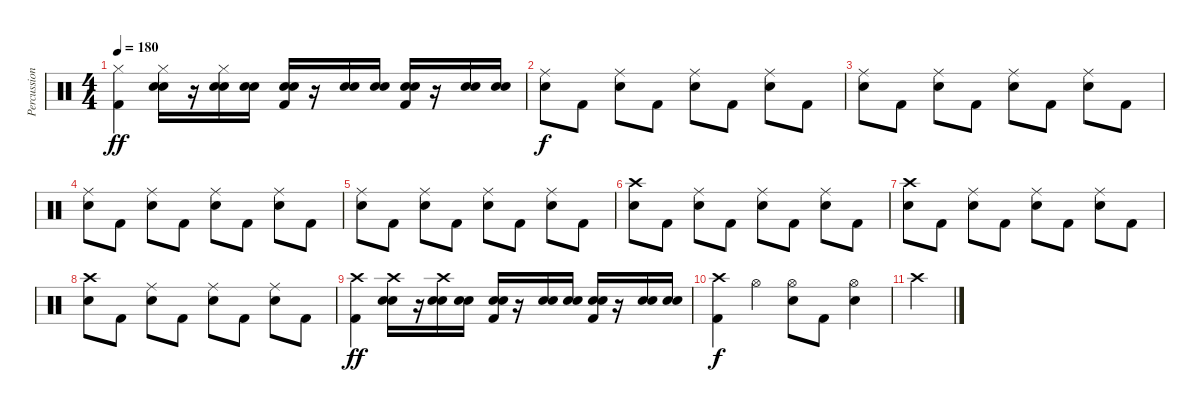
\track ("Percussion" "Percussion") {instrument percussion}
\staff {score}
\articulation defaults
\ts (4 4)
\tempo 180
\clef neutral
\ks c
("Hi-Hat (closed)" "Kick (hit) 2").4{dy ff} ("Hi-Hat (closed)" "Electric Snare (hit)" "Snare (hit) 2").16 r.16 ("Hi-Hat (closed)" "Electric Snare (hit)" "Snare (hit) 2").16 ("Electric Snare (hit)" "Snare (hit) 2").16 ("Electric Snare (hit)" "Snare (hit) 2" "Kick (hit) 2").16 r.16 ("Electric Snare (hit)" "Snare (hit) 2").16 ("Electric Snare (hit)" "Snare (hit) 2").16 ("Electric Snare (hit)" "Snare (hit) 2" "Kick (hit) 2").16 r.16 ("Electric Snare (hit)" "Snare (hit) 2").16 ("Electric Snare (hit)" "Snare (hit) 2").16 |
("Ride (middle)" "Electric Snare (hit)").8{dy f} "Kick (hit) 2".8 ("Ride (middle)" "Electric Snare (hit)").8 "Kick (hit) 2".8 ("Ride (middle)" "Electric Snare (hit)").8 "Kick (hit) 2".8 ("Ride (middle)" "Electric Snare (hit)").8 "Kick (hit) 2".8 |
("Ride (middle)" "Electric Snare (hit)").8 "Kick (hit) 2".8 ("Ride (middle)" "Electric Snare (hit)").8 "Kick (hit) 2".8 ("Ride (middle)" "Electric Snare (hit)").8 "Kick (hit) 2".8 ("Ride (middle)" "Electric Snare (hit)").8 "Kick (hit) 2".8 |
("Ride (middle)" "Electric Snare (hit)").8 "Kick (hit) 2".8 ("Ride (middle)" "Electric Snare (hit)").8 "Kick (hit) 2".8 ("Ride (middle)" "Electric Snare (hit)").8 "Kick (hit) 2".8 ("Ride (middle)" "Electric Snare (hit)").8 "Kick (hit) 2".8 |
("Ride (middle)" "Electric Snare (hit)").8 "Kick (hit) 2".8 ("Ride (middle)" "Electric Snare (hit)").8 "Kick (hit) 2".8 ("Ride (middle)" "Electric Snare (hit)").8 "Kick (hit) 2".8 ("Ride (middle)" "Electric Snare (hit)").8 "Kick (hit) 2".8 |
("Crash high (hit)" "Electric Snare (hit)").8 "Kick (hit) 2".8 ("Ride (middle)" "Electric Snare (hit)").8 "Kick (hit) 2".8 ("Ride (middle)" "Electric Snare (hit)").8 "Kick (hit) 2".8 ("Ride (middle)" "Electric Snare (hit)").8 "Kick (hit) 2".8 |
("Crash high (hit)" "Electric Snare (hit)").8 "Kick (hit) 2".8 ("Ride (middle)" "Electric Snare (hit)").8 "Kick (hit) 2".8 ("Ride (middle)" "Electric Snare (hit)").8 "Kick (hit) 2".8 ("Ride (middle)" "Electric Snare (hit)").8 "Kick (hit) 2".8 |
("Crash high (hit)" "Electric Snare (hit)").8 "Kick (hit) 2".8 ("Ride (middle)" "Electric Snare (hit)").8 "Kick (hit) 2".8 ("Ride (middle)" "Electric Snare (hit)").8 "Kick (hit) 2".8 ("Ride (middle)" "Electric Snare (hit)").8 "Kick (hit) 2".8 |
("Crash high (hit)" "Kick (hit) 2").4{dy ff} ("Crash high (hit)" "Electric Snare (hit)" "Snare (hit) 2").16 r.16 ("Crash high (hit)" "Electric Snare (hit)" "Snare (hit) 2").16 ("Electric Snare (hit)" "Snare (hit) 2").16 ("Electric Snare (hit)" "Snare (hit) 2" "Kick (hit) 2").16 r.16 ("Electric Snare (hit)" "Snare (hit) 2").16 ("Electric Snare (hit)" "Snare (hit) 2").16 ("Electric Snare (hit)" "Snare (hit) 2" "Kick (hit) 2").16 r.16 ("Electric Snare (hit)" "Snare (hit) 2").16 ("Electric Snare (hit)" "Snare (hit) 2").16 |
("Crash high (hit)" "Kick (hit) 2").4{dy f} "Hi-Hat (open)".4 ("Hi-Hat (open)" "Electric Snare (hit)").8 "Kick (hit) 2".8 ("Hi-Hat (open)" "Electric Snare (hit)").4 |
"Crash high (hit)".4
